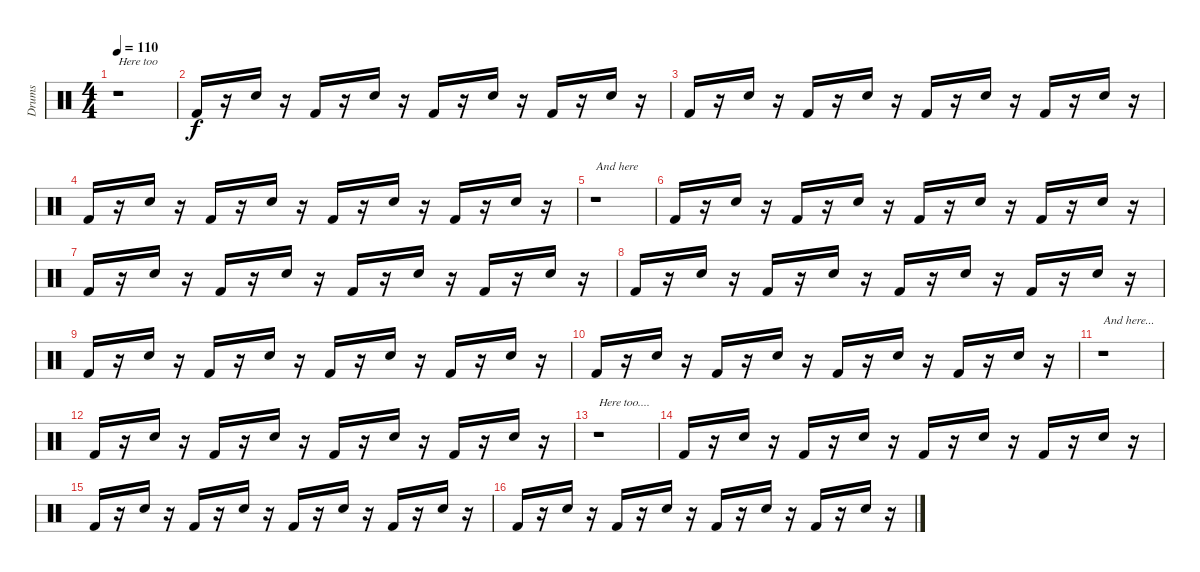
\track ("Drums" "Drums") {instrument percussion}
\staff {score}
\articulation defaults
\ts (4 4)
\tempo 110
\clef neutral
\ks c
r.1{txt "Here too" dy f} |
"Kick (hit) 2".16 r.16 "Snare (hit) 2".16 r.16 "Kick (hit) 2".16 r.16 "Snare (hit) 2".16 r.16 "Kick (hit) 2".16 r.16 "Snare (hit) 2".16 r.16 "Kick (hit) 2".16 r.16 "Snare (hit) 2".16 r.16 |
"Kick (hit) 2".16 r.16 "Snare (hit) 2".16 r.16 "Kick (hit) 2".16 r.16 "Snare (hit) 2".16 r.16 "Kick (hit) 2".16 r.16 "Snare (hit) 2".16 r.16 "Kick (hit) 2".16 r.16 "Snare (hit) 2".16 r.16 |
"Kick (hit) 2".16 r.16 "Snare (hit) 2".16 r.16 "Kick (hit) 2".16 r.16 "Snare (hit) 2".16 r.16 "Kick (hit) 2".16 r.16 "Snare (hit) 2".16 r.16 "Kick (hit) 2".16 r.16 "Snare (hit) 2".16 r.16 |
r.1{txt "And here"} |
"Kick (hit) 2".16 r.16 "Snare (hit) 2".16 r.16 "Kick (hit) 2".16 r.16 "Snare (hit) 2".16 r.16 "Kick (hit) 2".16 r.16 "Snare (hit) 2".16 r.16 "Kick (hit) 2".16 r.16 "Snare (hit) 2".16 r.16 |
"Kick (hit) 2".16 r.16 "Snare (hit) 2".16 r.16 "Kick (hit) 2".16 r.16 "Snare (hit) 2".16 r.16 "Kick (hit) 2".16 r.16 "Snare (hit) 2".16 r.16 "Kick (hit) 2".16 r.16 "Snare (hit) 2".16 r.16 |
"Kick (hit) 2".16 r.16 "Snare (hit) 2".16 r.16 "Kick (hit) 2".16 r.16 "Snare (hit) 2".16 r.16 "Kick (hit) 2".16 r.16 "Snare (hit) 2".16 r.16 "Kick (hit) 2".16 r.16 "Snare (hit) 2".16 r.16 |
"Kick (hit) 2".16 r.16 "Snare (hit) 2".16 r.16 "Kick (hit) 2".16 r.16 "Snare (hit) 2".16 r.16 "Kick (hit) 2".16 r.16 "Snare (hit) 2".16 r.16 "Kick (hit) 2".16 r.16 "Snare (hit) 2".16 r.16 |
"Kick (hit) 2".16 r.16 "Snare (hit) 2".16 r.16 "Kick (hit) 2".16 r.16 "Snare (hit) 2".16 r.16 "Kick (hit) 2".16 r.16 "Snare (hit) 2".16 r.16 "Kick (hit) 2".16 r.16 "Snare (hit) 2".16 r.16 |
r.1{txt "And here..."} |
"Kick (hit) 2".16 r.16 "Snare (hit) 2".16 r.16 "Kick (hit) 2".16 r.16 "Snare (hit) 2".16 r.16 "Kick (hit) 2".16 r.16 "Snare (hit) 2".16 r.16 "Kick (hit) 2".16 r.16 "Snare (hit) 2".16 r.16 |
r.1{txt "Here too...."} |
"Kick (hit) 2".16 r.16 "Snare (hit) 2".16 r.16 "Kick (hit) 2".16 r.16 "Snare (hit) 2".16 r.16 "Kick (hit) 2".16 r.16 "Snare (hit) 2".16 r.16 "Kick (hit) 2".16 r.16 "Snare (hit) 2".16 r.16 |
"Kick (hit) 2".16 r.16 "Snare (hit) 2".16 r.16 "Kick (hit) 2".16 r.16 "Snare (hit) 2".16 r.16 "Kick (hit) 2".16 r.16 "Snare (hit) 2".16 r.16 "Kick (hit) 2".16 r.16 "Snare (hit) 2".16 r.16 |
"Kick (hit) 2".16 r.16 "Snare (hit) 2".16 r.16 "Kick (hit) 2".16 r.16 "Snare (hit) 2".16 r.16 "Kick (hit) 2".16 r.16 "Snare (hit) 2".16 r.16 "Kick (hit) 2".16 r.16 "Snare (hit) 2".16 r.16
